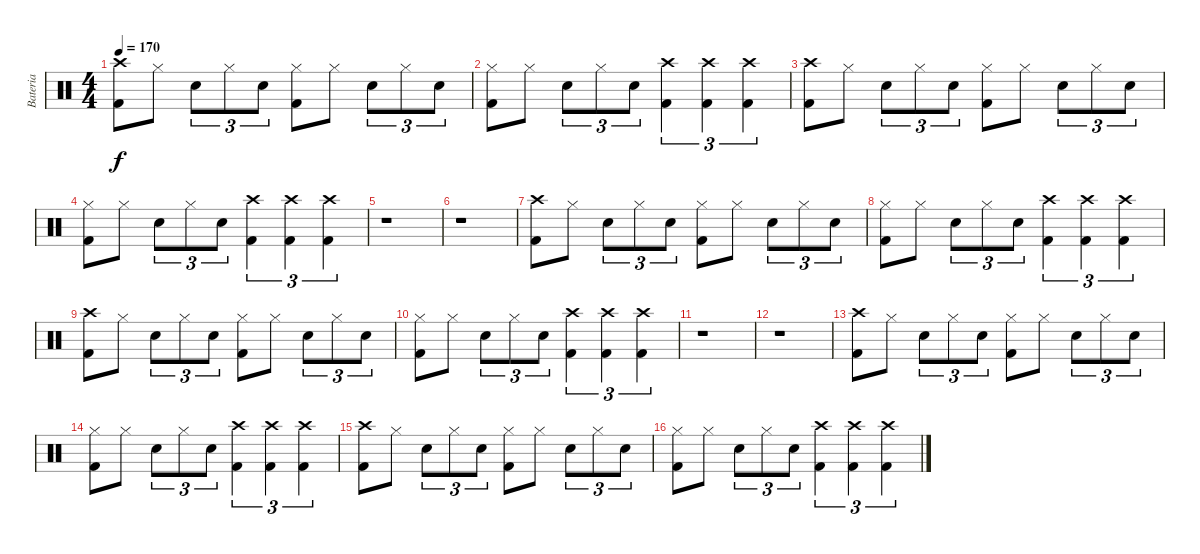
\track ("Bateria" "Bateria") {instrument percussion}
\staff {score}
\articulation defaults
\ts (4 4)
\tempo 170
\clef neutral
\ks c
("Crash high (hit)" "Kick (hit) 2").8{dy f} "Hi-Hat (closed)".8 "Snare (hit) 2".8{tu (3 2)} "Hi-Hat (closed)".8{tu (3 2)} "Snare (hit) 2".8{tu (3 2)} ("Hi-Hat (closed)" "Kick (hit) 2").8 "Hi-Hat (closed)".8 "Snare (hit) 2".8{tu (3 2)} "Hi-Hat (closed)".8{tu (3 2)} "Snare (hit) 2".8{tu (3 2)} |
("Hi-Hat (closed)" "Kick (hit) 2").8 "Hi-Hat (closed)".8 "Snare (hit) 2".8{tu (3 2)} "Hi-Hat (closed)".8{tu (3 2)} "Snare (hit) 2".8{tu (3 2)} ("Crash high (hit)" "Kick (hit) 2").4{tu (3 2)} ("Crash high (hit)" "Kick (hit) 2").4{tu (3 2)} ("Crash high (hit)" "Kick (hit) 2").4{tu (3 2)} |
("Crash high (hit)" "Kick (hit) 2").8 "Hi-Hat (closed)".8 "Snare (hit) 2".8{tu (3 2)} "Hi-Hat (closed)".8{tu (3 2)} "Snare (hit) 2".8{tu (3 2)} ("Hi-Hat (closed)" "Kick (hit) 2").8 "Hi-Hat (closed)".8 "Snare (hit) 2".8{tu (3 2)} "Hi-Hat (closed)".8{tu (3 2)} "Snare (hit) 2".8{tu (3 2)} |
("Hi-Hat (closed)" "Kick (hit) 2").8 "Hi-Hat (closed)".8 "Snare (hit) 2".8{tu (3 2)} "Hi-Hat (closed)".8{tu (3 2)} "Snare (hit) 2".8{tu (3 2)} ("Crash high (hit)" "Kick (hit) 2").4{tu (3 2)} ("Crash high (hit)" "Kick (hit) 2").4{tu (3 2)} ("Crash high (hit)" "Kick (hit) 2").4{tu (3 2)} |
r.1 |
r.1 |
("Crash high (hit)" "Kick (hit) 2").8 "Hi-Hat (closed)".8 "Snare (hit) 2".8{tu (3 2)} "Hi-Hat (closed)".8{tu (3 2)} "Snare (hit) 2".8{tu (3 2)} ("Hi-Hat (closed)" "Kick (hit) 2").8 "Hi-Hat (closed)".8 "Snare (hit) 2".8{tu (3 2)} "Hi-Hat (closed)".8{tu (3 2)} "Snare (hit) 2".8{tu (3 2)} |
("Hi-Hat (closed)" "Kick (hit) 2").8 "Hi-Hat (closed)".8 "Snare (hit) 2".8{tu (3 2)} "Hi-Hat (closed)".8{tu (3 2)} "Snare (hit) 2".8{tu (3 2)} ("Crash high (hit)" "Kick (hit) 2").4{tu (3 2)} ("Crash high (hit)" "Kick (hit) 2").4{tu (3 2)} ("Crash high (hit)" "Kick (hit) 2").4{tu (3 2)} |
("Crash high (hit)" "Kick (hit) 2").8 "Hi-Hat (closed)".8 "Snare (hit) 2".8{tu (3 2)} "Hi-Hat (closed)".8{tu (3 2)} "Snare (hit) 2".8{tu (3 2)} ("Hi-Hat (closed)" "Kick (hit) 2").8 "Hi-Hat (closed)".8 "Snare (hit) 2".8{tu (3 2)} "Hi-Hat (closed)".8{tu (3 2)} "Snare (hit) 2".8{tu (3 2)} |
("Hi-Hat (closed)" "Kick (hit) 2").8 "Hi-Hat (closed)".8 "Snare (hit) 2".8{tu (3 2)} "Hi-Hat (closed)".8{tu (3 2)} "Snare (hit) 2".8{tu (3 2)} ("Crash high (hit)" "Kick (hit) 2").4{tu (3 2)} ("Crash high (hit)" "Kick (hit) 2").4{tu (3 2)} ("Crash high (hit)" "Kick (hit) 2").4{tu (3 2)} |
r.1 |
r.1 |
("Crash high (hit)" "Kick (hit) 2").8 "Hi-Hat (closed)".8 "Snare (hit) 2".8{tu (3 2)} "Hi-Hat (closed)".8{tu (3 2)} "Snare (hit) 2".8{tu (3 2)} ("Hi-Hat (closed)" "Kick (hit) 2").8 "Hi-Hat (closed)".8 "Snare (hit) 2".8{tu (3 2)} "Hi-Hat (closed)".8{tu (3 2)} "Snare (hit) 2".8{tu (3 2)} |
("Hi-Hat (closed)" "Kick (hit) 2").8 "Hi-Hat (closed)".8 "Snare (hit) 2".8{tu (3 2)} "Hi-Hat (closed)".8{tu (3 2)} "Snare (hit) 2".8{tu (3 2)} ("Crash high (hit)" "Kick (hit) 2").4{tu (3 2)} ("Crash high (hit)" "Kick (hit) 2").4{tu (3 2)} ("Crash high (hit)" "Kick (hit) 2").4{tu (3 2)} |
("Crash high (hit)" "Kick (hit) 2").8 "Hi-Hat (closed)".8 "Snare (hit) 2".8{tu (3 2)} "Hi-Hat (closed)".8{tu (3 2)} "Snare (hit) 2".8{tu (3 2)} ("Hi-Hat (closed)" "Kick (hit) 2").8 "Hi-Hat (closed)".8 "Snare (hit) 2".8{tu (3 2)} "Hi-Hat (closed)".8{tu (3 2)} "Snare (hit) 2".8{tu (3 2)} |
("Hi-Hat (closed)" "Kick (hit) 2").8 "Hi-Hat (closed)".8 "Snare (hit) 2".8{tu (3 2)} "Hi-Hat (closed)".8{tu (3 2)} "Snare (hit) 2".8{tu (3 2)} ("Crash high (hit)" "Kick (hit) 2").4{tu (3 2)} ("Crash high (hit)" "Kick (hit) 2").4{tu (3 2)} ("Crash high (hit)" "Kick (hit) 2").4{tu (3 2)}
